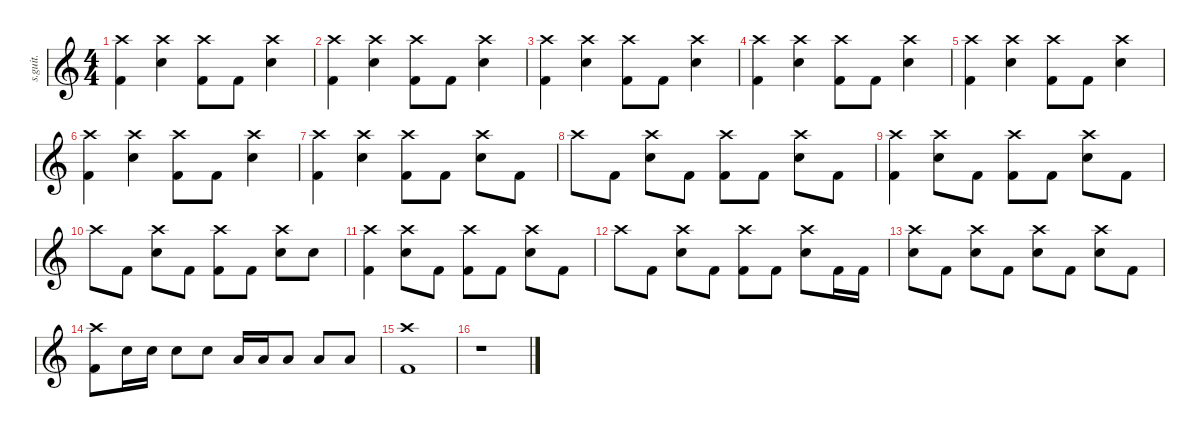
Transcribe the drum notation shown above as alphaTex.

\defaultSystemsLayout 4
\hideDynamics
\bracketExtendMode nobrackets
\track ("" "s.guit.") {instrument percussion}
\staff {score}
\articulation defaults
\ts (4 4)
\tempo (184 hide)
\clef g2
\ks c
("Crash high (hit)" "Kick (hit) 2").4{dy f} ("Crash high (hit)" "Snare (hit) 2").4 ("Crash high (hit)" "Kick (hit) 2").8 "Kick (hit) 2".8 ("Crash high (hit)" "Snare (hit) 2").4 |
("Crash high (hit)" "Kick (hit) 2").4 ("Crash high (hit)" "Snare (hit) 2").4 ("Crash high (hit)" "Kick (hit) 2").8 "Kick (hit) 2".8 ("Crash high (hit)" "Snare (hit) 2").4 |
("Crash high (hit)" "Kick (hit) 2").4 ("Crash high (hit)" "Snare (hit) 2").4 ("Crash high (hit)" "Kick (hit) 2").8 "Kick (hit) 2".8 ("Crash high (hit)" "Snare (hit) 2").4 |
("Crash high (hit)" "Kick (hit) 2").4 ("Crash high (hit)" "Snare (hit) 2").4 ("Crash high (hit)" "Kick (hit) 2").8 "Kick (hit) 2".8 ("Crash high (hit)" "Snare (hit) 2").4 |
("Crash high (hit)" "Kick (hit) 2").4 ("Crash high (hit)" "Snare (hit) 2").4 ("Crash high (hit)" "Kick (hit) 2").8 "Kick (hit) 2".8 ("Crash high (hit)" "Snare (hit) 2").4 |
("Crash high (hit)" "Kick (hit) 2").4 ("Crash high (hit)" "Snare (hit) 2").4 ("Crash high (hit)" "Kick (hit) 2").8 "Kick (hit) 2".8 ("Crash high (hit)" "Snare (hit) 2").4 |
("Crash high (hit)" "Kick (hit) 2").4 ("Crash high (hit)" "Snare (hit) 2").4 ("Crash high (hit)" "Kick (hit) 2").8 "Kick (hit) 2".8 ("Crash high (hit)" "Snare (hit) 2").8 "Kick (hit) 2".8 |
"Crash high (hit)".8 "Kick (hit) 2".8 ("Crash high (hit)" "Snare (hit) 2").8 "Kick (hit) 2".8 ("Crash high (hit)" "Kick (hit) 2").8 "Kick (hit) 2".8 ("Crash high (hit)" "Snare (hit) 2").8 "Kick (hit) 2".8 |
("Crash high (hit)" "Kick (hit) 2").4 ("Crash high (hit)" "Snare (hit) 2").8 "Kick (hit) 2".8 ("Crash high (hit)" "Kick (hit) 2").8 "Kick (hit) 2".8 ("Crash high (hit)" "Snare (hit) 2").8 "Kick (hit) 2".8 |
"Crash high (hit)".8 "Kick (hit) 2".8 ("Crash high (hit)" "Snare (hit) 2").8 "Kick (hit) 2".8 ("Crash high (hit)" "Kick (hit) 2").8 "Kick (hit) 2".8 ("Crash high (hit)" "Snare (hit) 2").8 "Snare (hit) 2".8 |
("Crash high (hit)" "Kick (hit) 2").4 ("Crash high (hit)" "Snare (hit) 2").8 "Kick (hit) 2".8 ("Crash high (hit)" "Kick (hit) 2").8 "Kick (hit) 2".8 ("Crash high (hit)" "Snare (hit) 2").8 "Kick (hit) 2".8 |
"Crash high (hit)".8 "Kick (hit) 2".8 ("Crash high (hit)" "Snare (hit) 2").8 "Kick (hit) 2".8 ("Crash high (hit)" "Kick (hit) 2").8 "Kick (hit) 2".8 ("Crash high (hit)" "Snare (hit) 2").8 "Kick (hit) 2".16 "Kick (hit) 2".16 |
("Crash high (hit)" "Snare (hit) 2").8 "Kick (hit) 2".8 ("Crash high (hit)" "Snare (hit) 2").8 "Kick (hit) 2".8 ("Crash high (hit)" "Snare (hit) 2").8 "Kick (hit) 2".8 ("Crash high (hit)" "Snare (hit) 2").8 "Kick (hit) 2".8 |
("Crash high (hit)" "Kick (hit) 2").8 "Snare (hit) 2".16 "Snare (hit) 2".16 "Snare (hit) 2".8 "Snare (hit) 2".8 "Low Tom (hit)".16 "Low Tom (hit)".16 "Low Tom (hit)".8 "Low Tom (hit)".8 "Low Tom (hit)".8 |
("Crash high (hit)" "Kick (hit) 2").1 |
r.1
